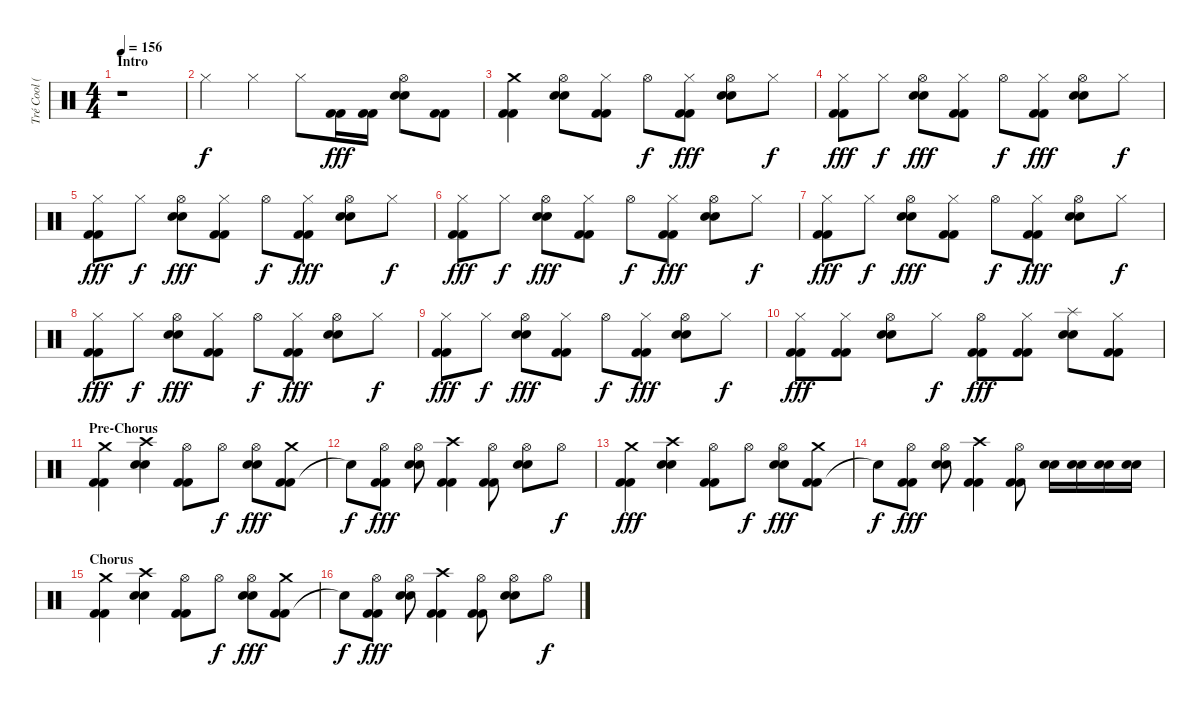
\track ("Tré Cool (Drums)" "Tré Cool (") {instrument percussion}
\staff {score}
\articulation defaults
\ts (4 4)
\section ("" "Intro")
\tempo 156
\clef neutral
\ks c
r.1{dy f} |
"Hi-Hat (closed)".4 "Hi-Hat (closed)".4 "Hi-Hat (closed)".8 ("Kick (hit) 2" "Kick (hit) 2").16{dy fff} ("Kick (hit) 2" "Kick (hit) 2").16 ("Electric Snare (hit)" "Electric Snare (hit)" "Hi-Hat (open)").8 ("Kick (hit) 2" "Kick (hit) 2").8 |
("Kick (hit) 2" "Kick (hit) 2" "Crash medium (hit)").4 ("Electric Snare (hit)" "Electric Snare (hit)" "Hi-Hat (open)").8 ("Kick (hit) 2" "Kick (hit) 2" "Hi-Hat (closed)").8 "Hi-Hat (open)".8{dy f} ("Kick (hit) 2" "Kick (hit) 2" "Hi-Hat (closed)").8{dy fff} ("Electric Snare (hit)" "Electric Snare (hit)" "Hi-Hat (open)").8 "Hi-Hat (closed)".8{dy f} |
("Kick (hit) 2" "Kick (hit) 2" "Hi-Hat (closed)").8{dy fff} "Hi-Hat (closed)".8{dy f} ("Electric Snare (hit)" "Electric Snare (hit)" "Hi-Hat (open)").8{dy fff} ("Kick (hit) 2" "Kick (hit) 2" "Hi-Hat (closed)").8 "Hi-Hat (open)".8{dy f} ("Kick (hit) 2" "Kick (hit) 2" "Hi-Hat (closed)").8{dy fff} ("Electric Snare (hit)" "Electric Snare (hit)" "Hi-Hat (open)").8 "Hi-Hat (closed)".8{dy f} |
("Kick (hit) 2" "Kick (hit) 2" "Hi-Hat (closed)").8{dy fff} "Hi-Hat (closed)".8{dy f} ("Electric Snare (hit)" "Electric Snare (hit)" "Hi-Hat (open)").8{dy fff} ("Kick (hit) 2" "Kick (hit) 2" "Hi-Hat (closed)").8 "Hi-Hat (open)".8{dy f} ("Kick (hit) 2" "Kick (hit) 2" "Hi-Hat (closed)").8{dy fff} ("Electric Snare (hit)" "Electric Snare (hit)" "Hi-Hat (open)").8 "Hi-Hat (closed)".8{dy f} |
("Kick (hit) 2" "Kick (hit) 2" "Hi-Hat (closed)").8{dy fff} "Hi-Hat (closed)".8{dy f} ("Electric Snare (hit)" "Electric Snare (hit)" "Hi-Hat (open)").8{dy fff} ("Kick (hit) 2" "Kick (hit) 2" "Hi-Hat (closed)").8 "Hi-Hat (open)".8{dy f} ("Kick (hit) 2" "Kick (hit) 2" "Hi-Hat (closed)").8{dy fff} ("Electric Snare (hit)" "Electric Snare (hit)" "Hi-Hat (open)").8 "Hi-Hat (closed)".8{dy f} |
("Kick (hit) 2" "Kick (hit) 2" "Hi-Hat (closed)").8{dy fff} "Hi-Hat (closed)".8{dy f} ("Electric Snare (hit)" "Electric Snare (hit)" "Hi-Hat (open)").8{dy fff} ("Kick (hit) 2" "Kick (hit) 2" "Hi-Hat (closed)").8 "Hi-Hat (open)".8{dy f} ("Kick (hit) 2" "Kick (hit) 2" "Hi-Hat (closed)").8{dy fff} ("Electric Snare (hit)" "Electric Snare (hit)" "Hi-Hat (open)").8 "Hi-Hat (closed)".8{dy f} |
("Kick (hit) 2" "Kick (hit) 2" "Hi-Hat (closed)").8{dy fff} "Hi-Hat (closed)".8{dy f} ("Electric Snare (hit)" "Electric Snare (hit)" "Hi-Hat (open)").8{dy fff} ("Kick (hit) 2" "Kick (hit) 2" "Hi-Hat (closed)").8 "Hi-Hat (open)".8{dy f} ("Kick (hit) 2" "Kick (hit) 2" "Hi-Hat (closed)").8{dy fff} ("Electric Snare (hit)" "Electric Snare (hit)" "Hi-Hat (open)").8 "Hi-Hat (closed)".8{dy f} |
("Kick (hit) 2" "Kick (hit) 2" "Hi-Hat (closed)").8{dy fff} "Hi-Hat (closed)".8{dy f} ("Electric Snare (hit)" "Electric Snare (hit)" "Hi-Hat (open)").8{dy fff} ("Kick (hit) 2" "Kick (hit) 2" "Hi-Hat (closed)").8 "Hi-Hat (open)".8{dy f} ("Kick (hit) 2" "Kick (hit) 2" "Hi-Hat (closed)").8{dy fff} ("Electric Snare (hit)" "Electric Snare (hit)" "Hi-Hat (open)").8 "Hi-Hat (closed)".8{dy f} |
("Kick (hit) 2" "Kick (hit) 2" "Hi-Hat (closed)").8{dy fff} ("Kick (hit) 2" "Kick (hit) 2" "Hi-Hat (closed)").8 ("Electric Snare (hit)" "Electric Snare (hit)" "Hi-Hat (open)").8 "Hi-Hat (closed)".8{dy f} ("Kick (hit) 2" "Kick (hit) 2" "Hi-Hat (open)").8{dy fff} ("Kick (hit) 2" "Kick (hit) 2" "Hi-Hat (closed)").8 ("Electric Snare (hit)" "Electric Snare (hit)" "Splash (hit)").8 ("Kick (hit) 2" "Kick (hit) 2" "Hi-Hat (closed)").8 |
\section ("" "Pre-Chorus")
("Kick (hit) 2" "Kick (hit) 2" "Crash medium (hit)").4 ("Electric Snare (hit)" "Electric Snare (hit)" "Crash high (hit)").4 ("Kick (hit) 2" "Kick (hit) 2" "Hi-Hat (open)").8 "Hi-Hat (open)".8{dy f} ("Electric Snare (hit)" "Electric Snare (hit)" "Hi-Hat (open)").8{dy fff} ("Kick (hit) 2" "Kick (hit) 2" "Crash medium (hit)").8 |
"Snare (hit)"{t}.8{dy f} ("Kick (hit) 2" "Kick (hit) 2" "Hi-Hat (open)").8{dy fff} ("Electric Snare (hit)" "Electric Snare (hit)" "Hi-Hat (open)").8 ("Kick (hit) 2" "Kick (hit) 2" "Crash high (hit)").4 ("Kick (hit) 2" "Kick (hit) 2" "Hi-Hat (open)").8 ("Electric Snare (hit)" "Electric Snare (hit)" "Hi-Hat (open)").8 "Hi-Hat (open)".8{dy f} |
("Kick (hit) 2" "Kick (hit) 2" "Crash medium (hit)").4{dy fff} ("Electric Snare (hit)" "Electric Snare (hit)" "Crash high (hit)").4 ("Kick (hit) 2" "Kick (hit) 2" "Hi-Hat (open)").8 "Hi-Hat (open)".8{dy f} ("Electric Snare (hit)" "Electric Snare (hit)" "Hi-Hat (open)").8{dy fff} ("Kick (hit) 2" "Kick (hit) 2" "Crash medium (hit)").8 |
"Snare (hit)"{t}.8{dy f} ("Kick (hit) 2" "Kick (hit) 2" "Hi-Hat (open)").8{dy fff} ("Electric Snare (hit)" "Electric Snare (hit)" "Hi-Hat (open)").8 ("Kick (hit) 2" "Kick (hit) 2" "Crash high (hit)").4 ("Kick (hit) 2" "Kick (hit) 2" "Hi-Hat (open)").8 ("Electric Snare (hit)" "Electric Snare (hit)").16 ("Electric Snare (hit)" "Electric Snare (hit)").16 ("Electric Snare (hit)" "Electric Snare (hit)").16 ("Electric Snare (hit)" "Electric Snare (hit)").16 |
\section ("" "Chorus")
("Kick (hit) 2" "Kick (hit) 2" "Crash medium (hit)").4 ("Electric Snare (hit)" "Electric Snare (hit)" "Crash high (hit)").4 ("Kick (hit) 2" "Kick (hit) 2" "Hi-Hat (open)").8 "Hi-Hat (open)".8{dy f} ("Electric Snare (hit)" "Electric Snare (hit)" "Hi-Hat (open)").8{dy fff} ("Kick (hit) 2" "Kick (hit) 2" "Crash medium (hit)").8 |
"Snare (hit)"{t}.8{dy f} ("Kick (hit) 2" "Kick (hit) 2" "Hi-Hat (open)").8{dy fff} ("Electric Snare (hit)" "Electric Snare (hit)" "Hi-Hat (open)").8 ("Kick (hit) 2" "Kick (hit) 2" "Crash high (hit)").4 ("Kick (hit) 2" "Kick (hit) 2" "Hi-Hat (open)").8 ("Electric Snare (hit)" "Electric Snare (hit)" "Hi-Hat (open)").8 "Hi-Hat (open)".8{dy f}
